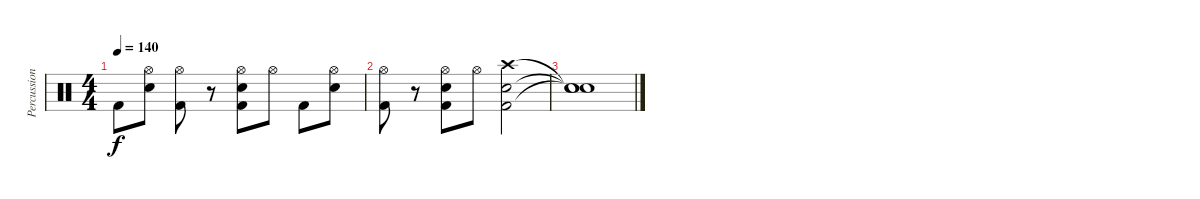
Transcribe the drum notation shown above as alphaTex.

\track ("Percussion" "Percussion") {instrument percussion}
\staff {score}
\articulation defaults
\ts (4 4)
\tempo 140
\clef neutral
\ks c "Kick (hit) 2".8{dy f}
("Hi-Hat (open)" "Snare (hit) 2").8 ("Hi-Hat (open)" "Kick (hit) 2").8 r.8 ("Hi-Hat (open)" "Snare (hit) 2" "Kick (hit) 2").8 "Hi-Hat (open)".8 "Kick (hit) 2".8 ("Hi-Hat (open)" "Snare (hit) 2").8 |
("Hi-Hat (open)" "Kick (hit) 2").8 r.8 ("Hi-Hat (open)" "Snare (hit) 2" "Kick (hit) 2").8 "Hi-Hat (open)".8 ("Crash high (hit)" "Snare (hit) 2" "Kick (hit) 2").2 |
("Snare (hit)"{t} "Snare (hit)"{t} "Snare (hit)"{t}).1
